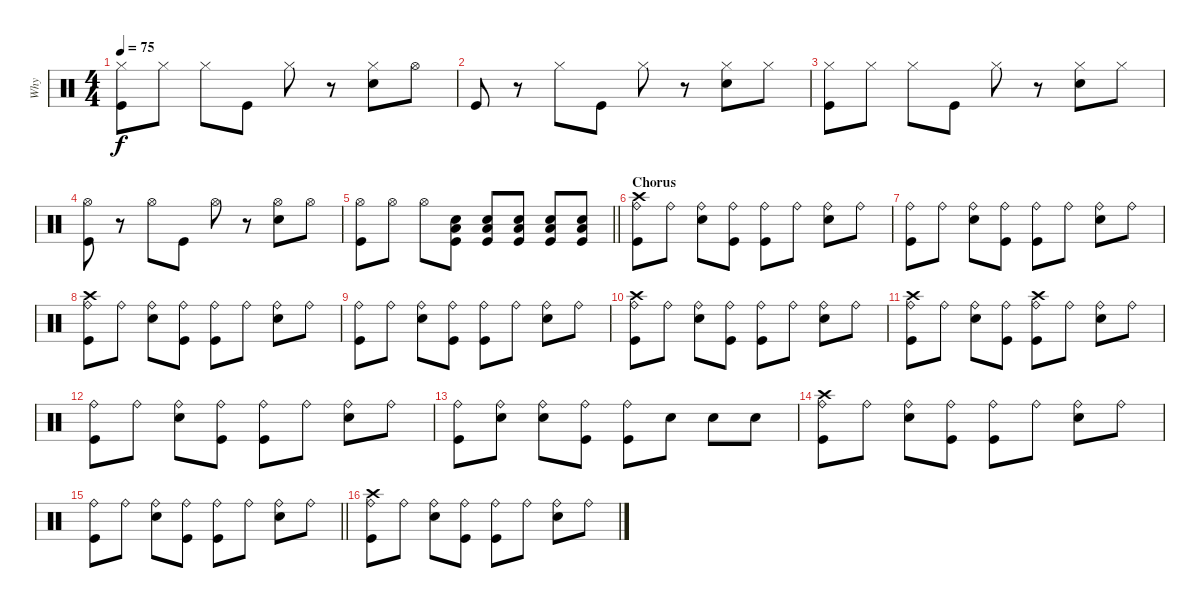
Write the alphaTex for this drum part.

\track ("Why" "Why") {instrument percussion}
\staff {score}
\articulation defaults
\ts (4 4)
\tempo 75
\clef neutral
\ks c
("Hi-Hat (closed)" "Kick (hit)").8{dy f} "Hi-Hat (closed)".8 "Hi-Hat (closed)".8 "Kick (hit)".8 "Hi-Hat (closed)".8 r.8 ("Hi-Hat (closed)" "Snare (hit) 2").8 "Hi-Hat (open)".8 |
"Kick (hit)".8 r.8 "Hi-Hat (closed)".8 "Kick (hit)".8 "Hi-Hat (closed)".8 r.8 ("Hi-Hat (closed)" "Snare (hit) 2").8 "Hi-Hat (closed)".8 |
("Hi-Hat (closed)" "Kick (hit)").8 "Hi-Hat (closed)".8 "Hi-Hat (closed)".8 "Kick (hit)".8 "Hi-Hat (closed)".8 r.8 ("Hi-Hat (closed)" "Snare (hit) 2").8 "Hi-Hat (closed)".8 |
("Hi-Hat (open)" "Kick (hit)").8 r.8 "Hi-Hat (open)".8 "Kick (hit)".8 "Hi-Hat (open)".8 r.8 ("Hi-Hat (open)" "Snare (hit) 2").8 "Hi-Hat (open)".8 |
\barLineRight lightlight
("Hi-Hat (open)" "Kick (hit)").8 "Hi-Hat (open)".8 "Hi-Hat (open)".8 ("Low Floor Tom (hit)" "Snare (hit) 2" "Kick (hit)").8 ("Low Floor Tom (hit)" "Snare (hit) 2" "Kick (hit)").8 ("Low Floor Tom (hit)" "Snare (hit) 2" "Kick (hit)").8 ("Low Floor Tom (hit)" "Snare (hit) 2" "Kick (hit)").8 ("Low Floor Tom (hit)" "Snare (hit) 2" "Kick (hit)").8 |
\section ("" "Chorus")
("Crash high (hit)" "Ride (bell)" "Kick (hit)").8 "Ride (bell)".8 ("Ride (bell)" "Snare (hit) 2").8 ("Ride (bell)" "Kick (hit)").8 ("Ride (bell)" "Kick (hit)").8 "Ride (bell)".8 ("Ride (bell)" "Snare (hit) 2").8 "Ride (bell)".8 |
("Ride (bell)" "Kick (hit)").8 "Ride (bell)".8 ("Ride (bell)" "Snare (hit) 2").8 ("Ride (bell)" "Kick (hit)").8 ("Ride (bell)" "Kick (hit)").8 "Ride (bell)".8 ("Ride (bell)" "Snare (hit) 2").8 "Ride (bell)".8 |
("Crash high (hit)" "Ride (bell)" "Kick (hit)").8 "Ride (bell)".8 ("Ride (bell)" "Snare (hit) 2").8 ("Ride (bell)" "Kick (hit)").8 ("Ride (bell)" "Kick (hit)").8 "Ride (bell)".8 ("Ride (bell)" "Snare (hit) 2").8 "Ride (bell)".8 |
("Ride (bell)" "Kick (hit)").8 "Ride (bell)".8 ("Ride (bell)" "Snare (hit) 2").8 ("Ride (bell)" "Kick (hit)").8 ("Ride (bell)" "Kick (hit)").8 "Ride (bell)".8 ("Ride (bell)" "Snare (hit) 2").8 "Ride (bell)".8 |
("Crash high (hit)" "Ride (bell)" "Kick (hit)").8 "Ride (bell)".8 ("Ride (bell)" "Snare (hit) 2").8 ("Ride (bell)" "Kick (hit)").8 ("Ride (bell)" "Kick (hit)").8 "Ride (bell)".8 ("Ride (bell)" "Snare (hit) 2").8 "Ride (bell)".8 |
("Crash high (hit)" "Ride (bell)" "Kick (hit)").8 "Ride (bell)".8 ("Ride (bell)" "Snare (hit) 2").8 ("Ride (bell)" "Kick (hit)").8 ("Crash high (hit)" "Ride (bell)" "Kick (hit)").8 "Ride (bell)".8 ("Ride (bell)" "Snare (hit) 2").8 "Ride (bell)".8 |
("Ride (bell)" "Kick (hit)").8 "Ride (bell)".8 ("Ride (bell)" "Snare (hit) 2").8 ("Ride (bell)" "Kick (hit)").8 ("Ride (bell)" "Kick (hit)").8 "Ride (bell)".8 ("Ride (bell)" "Snare (hit) 2").8 "Ride (bell)".8 |
("Ride (bell)" "Kick (hit)").8 ("Ride (bell)" "Snare (hit) 2").8 ("Ride (bell)" "Snare (hit) 2").8 ("Ride (bell)" "Kick (hit)").8 ("Ride (bell)" "Kick (hit)").8 "Snare (hit) 2".8 "Snare (hit) 2".8 "Snare (hit) 2".8 |
("Crash high (hit)" "Ride (bell)" "Kick (hit)").8 "Ride (bell)".8 ("Ride (bell)" "Snare (hit) 2").8 ("Ride (bell)" "Kick (hit)").8 ("Ride (bell)" "Kick (hit)").8 "Ride (bell)".8 ("Ride (bell)" "Snare (hit) 2").8 "Ride (bell)".8 |
\barLineRight lightlight
("Ride (bell)" "Kick (hit)").8 "Ride (bell)".8 ("Ride (bell)" "Snare (hit) 2").8 ("Ride (bell)" "Kick (hit)").8 ("Ride (bell)" "Kick (hit)").8 "Ride (bell)".8 ("Ride (bell)" "Snare (hit) 2").8 "Ride (bell)".8 |
("Crash high (hit)" "Ride (bell)" "Kick (hit)").8 "Ride (bell)".8 ("Ride (bell)" "Snare (hit) 2").8 ("Ride (bell)" "Kick (hit)").8 ("Ride (bell)" "Kick (hit)").8 "Ride (bell)".8 ("Ride (bell)" "Snare (hit) 2").8 "Ride (bell)".8
